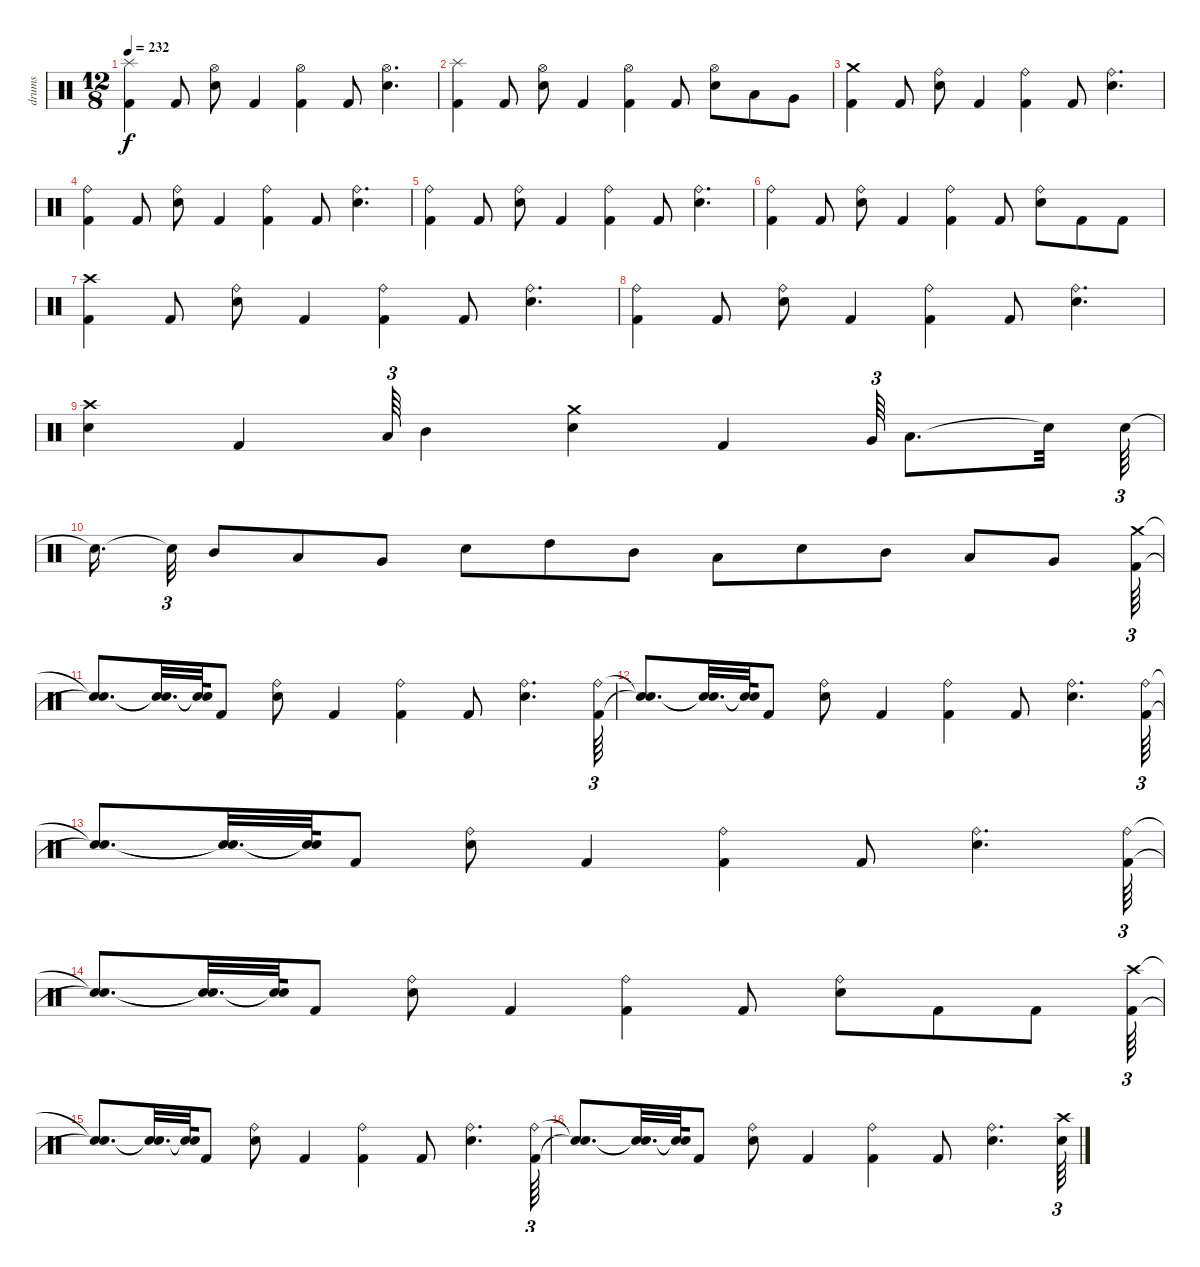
\track ("drums" "drums") {instrument percussion}
\staff {score}
\articulation defaults
\ts (12 8)
\tempo 232
\clef neutral
\ks c
("Splash (hit)" "Kick (hit) 2").4{dy f} "Kick (hit) 2".8 ("Hi-Hat (open)" "Electric Snare (hit)").8 "Kick (hit) 2".4 ("Hi-Hat (open)" "Kick (hit) 2").4 "Kick (hit) 2".8 ("Hi-Hat (open)" "Electric Snare (hit)").4{d} |
("Splash (hit)" "Kick (hit) 2").4 "Kick (hit) 2".8 ("Hi-Hat (open)" "Electric Snare (hit)").8 "Kick (hit) 2".4 ("Hi-Hat (open)" "Kick (hit) 2").4 "Kick (hit) 2".8 ("Electric Snare (hit)" "Hi-Hat (open)").8 "Low Tom (hit)".8 "Very Low Tom (hit)".8 |
("Crash medium (hit)" "Kick (hit) 2").4 "Kick (hit) 2".8 ("Ride (bell)" "Electric Snare (hit)").8 "Kick (hit) 2".4 ("Ride (bell)" "Kick (hit) 2").4 "Kick (hit) 2".8 ("Ride (bell)" "Electric Snare (hit)").4{d} |
("Ride (bell)" "Kick (hit) 2").4 "Kick (hit) 2".8 ("Ride (bell)" "Electric Snare (hit)").8 "Kick (hit) 2".4 ("Ride (bell)" "Kick (hit) 2").4 "Kick (hit) 2".8 ("Ride (bell)" "Electric Snare (hit)").4{d} |
("Kick (hit) 2" "Ride (bell)").4 "Kick (hit) 2".8 ("Ride (bell)" "Electric Snare (hit)").8 "Kick (hit) 2".4 ("Kick (hit) 2" "Ride (bell)").4 "Kick (hit) 2".8 ("Ride (bell)" "Electric Snare (hit)").4{d} |
("Kick (hit) 2" "Ride (bell)").4 "Kick (hit) 2".8 ("Ride (bell)" "Electric Snare (hit)").8 "Kick (hit) 2".4 ("Ride (bell)" "Kick (hit) 2").4 "Kick (hit) 2".8 ("Ride (bell)" "Electric Snare (hit)").8 "Kick (hit) 2".8 "Kick (hit) 2".8 |
("Crash high (hit)" "Kick (hit) 2").4 "Kick (hit) 2".8 ("Ride (bell)" "Electric Snare (hit)").8 "Kick (hit) 2".4 ("Ride (bell)" "Kick (hit) 2").4 "Kick (hit) 2".8 ("Ride (bell)" "Electric Snare (hit)").4{d} |
("Ride (bell)" "Kick (hit) 2").4 "Kick (hit) 2".8 ("Ride (bell)" "Electric Snare (hit)").8 "Kick (hit) 2".4 ("Ride (bell)" "Kick (hit) 2").4 "Kick (hit) 2".8 ("Ride (bell)" "Electric Snare (hit)").4{d} |
("Crash high (hit)" "Electric Snare (hit)").4 "Kick (hit) 2".4 "Low Tom (hit)".64{tu (3 2)} "Mid Tom (hit)".4 ("Crash medium (hit)" "Electric Snare (hit)").4 "Kick (hit) 2".4 "Very Low Tom (hit)".64{tu (3 2)} "Low Tom (hit)".8{d} "Snare (hit)"{t}.32 "Electric Snare (hit)".64{tu (3 2)} |
"Snare (hit)"{t}.16{d beam splitsecondary} "Snare (hit)"{t}.32{tu (3 2)} "Mid Tom (hit)".8 "Low Tom (hit)".8 "Very Low Tom (hit)".8 "Electric Snare (hit)".8 "High Tom (hit)".8 "Mid Tom (hit)".8 "Low Tom (hit)".8 "Electric Snare (hit)".8 "Mid Tom (hit)".8 "Low Tom (hit)".8 "Very Low Tom (hit)".8 ("Crash medium (hit)" "Kick (hit) 2").64{tu (3 2)} |
("Snare (hit)"{t} "Snare (hit)"{t}).8{d} ("Snare (hit)"{t} "Snare (hit)"{t}).32{d} ("Snare (hit)"{t} "Snare (hit)"{t}).64 "Kick (hit) 2".8 ("Ride (bell)" "Electric Snare (hit)").8 "Kick (hit) 2".4 ("Ride (bell)" "Kick (hit) 2").4 "Kick (hit) 2".8 ("Ride (bell)" "Electric Snare (hit)").4{d} ("Ride (bell)" "Kick (hit) 2").64{tu (3 2)} |
("Snare (hit)"{t} "Snare (hit)"{t}).8{d} ("Snare (hit)"{t} "Snare (hit)"{t}).32{d} ("Snare (hit)"{t} "Snare (hit)"{t}).64 "Kick (hit) 2".8 ("Ride (bell)" "Electric Snare (hit)").8 "Kick (hit) 2".4 ("Ride (bell)" "Kick (hit) 2").4 "Kick (hit) 2".8 ("Ride (bell)" "Electric Snare (hit)").4{d} ("Kick (hit) 2" "Ride (bell)").64{tu (3 2)} |
("Snare (hit)"{t} "Snare (hit)"{t}).8{d} ("Snare (hit)"{t} "Snare (hit)"{t}).32{d} ("Snare (hit)"{t} "Snare (hit)"{t}).64 "Kick (hit) 2".8 ("Ride (bell)" "Electric Snare (hit)").8 "Kick (hit) 2".4 ("Kick (hit) 2" "Ride (bell)").4 "Kick (hit) 2".8 ("Ride (bell)" "Electric Snare (hit)").4{d} ("Kick (hit) 2" "Ride (bell)").64{tu (3 2)} |
("Snare (hit)"{t} "Snare (hit)"{t}).8{d} ("Snare (hit)"{t} "Snare (hit)"{t}).32{d} ("Snare (hit)"{t} "Snare (hit)"{t}).64 "Kick (hit) 2".8 ("Ride (bell)" "Electric Snare (hit)").8 "Kick (hit) 2".4 ("Ride (bell)" "Kick (hit) 2").4 "Kick (hit) 2".8 ("Ride (bell)" "Electric Snare (hit)").8 "Kick (hit) 2".8 "Kick (hit) 2".8 ("Crash high (hit)" "Kick (hit) 2").64{tu (3 2)} |
("Snare (hit)"{t} "Snare (hit)"{t}).8{d} ("Snare (hit)"{t} "Snare (hit)"{t}).32{d} ("Snare (hit)"{t} "Snare (hit)"{t}).64 "Kick (hit) 2".8 ("Ride (bell)" "Electric Snare (hit)").8 "Kick (hit) 2".4 ("Ride (bell)" "Kick (hit) 2").4 "Kick (hit) 2".8 ("Ride (bell)" "Electric Snare (hit)").4{d} ("Ride (bell)" "Kick (hit) 2").64{tu (3 2)} |
("Snare (hit)"{t} "Snare (hit)"{t}).8{d} ("Snare (hit)"{t} "Snare (hit)"{t}).32{d} ("Snare (hit)"{t} "Snare (hit)"{t}).64 "Kick (hit) 2".8 ("Ride (bell)" "Electric Snare (hit)").8 "Kick (hit) 2".4 ("Ride (bell)" "Kick (hit) 2").4 "Kick (hit) 2".8 ("Ride (bell)" "Electric Snare (hit)").4{d} ("Crash high (hit)" "Electric Snare (hit)").64{tu (3 2)}
